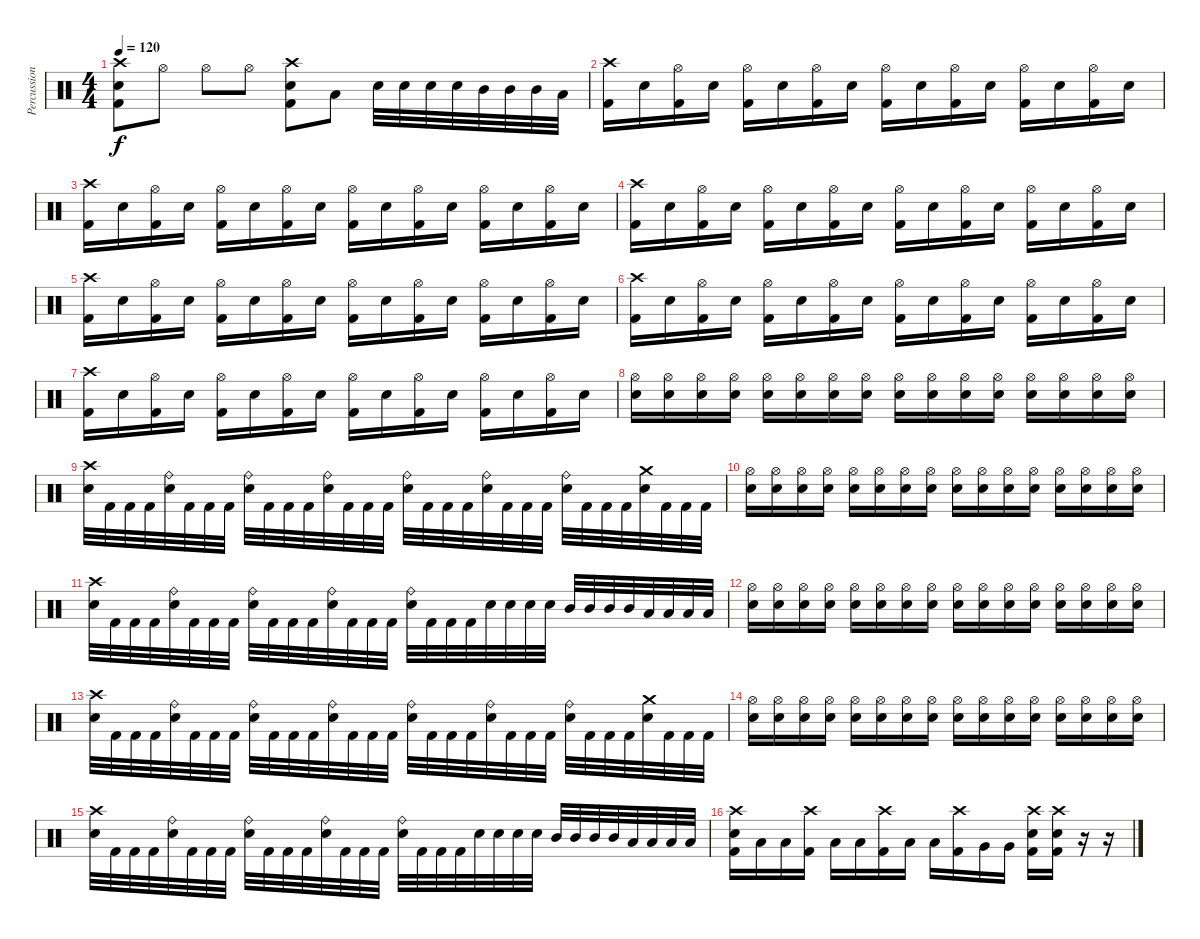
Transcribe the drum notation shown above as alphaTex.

\track ("Percussion" "Percussion") {instrument percussion}
\staff {score}
\articulation defaults
\ts (4 4)
\tempo 120
\clef neutral
\ks c
("Crash high (hit)" "Electric Snare (hit)" "Kick (hit) 2").8{dy f} "Hi-Hat (open)".8 "Hi-Hat (open)".8 "Hi-Hat (open)".8 ("Crash high (hit)" "Electric Snare (hit)" "Kick (hit) 2").8 "Low Tom (hit)".8 "Electric Snare (hit)".32 "Electric Snare (hit)".32 "Electric Snare (hit)".32 "Electric Snare (hit)".32 "Mid Tom (hit)".32 "Mid Tom (hit)".32 "Mid Tom (hit)".32 "Low Tom (hit)".32 |
("Crash high (hit)" "Kick (hit) 2").16 "Electric Snare (hit)".16 ("Hi-Hat (open)" "Kick (hit) 2").16 "Electric Snare (hit)".16 ("Hi-Hat (open)" "Kick (hit) 2").16 "Electric Snare (hit)".16 ("Hi-Hat (open)" "Kick (hit) 2").16 "Electric Snare (hit)".16 ("Hi-Hat (open)" "Kick (hit) 2").16 "Electric Snare (hit)".16 ("Hi-Hat (open)" "Kick (hit) 2").16 "Electric Snare (hit)".16 ("Hi-Hat (open)" "Kick (hit) 2").16 "Electric Snare (hit)".16 ("Hi-Hat (open)" "Kick (hit) 2").16 "Electric Snare (hit)".16 |
("Crash high (hit)" "Kick (hit) 2").16 "Electric Snare (hit)".16 ("Hi-Hat (open)" "Kick (hit) 2").16 "Electric Snare (hit)".16 ("Hi-Hat (open)" "Kick (hit) 2").16 "Electric Snare (hit)".16 ("Hi-Hat (open)" "Kick (hit) 2").16 "Electric Snare (hit)".16 ("Hi-Hat (open)" "Kick (hit) 2").16 "Electric Snare (hit)".16 ("Hi-Hat (open)" "Kick (hit) 2").16 "Electric Snare (hit)".16 ("Hi-Hat (open)" "Kick (hit) 2").16 "Electric Snare (hit)".16 ("Hi-Hat (open)" "Kick (hit) 2").16 "Electric Snare (hit)".16 |
("Crash high (hit)" "Kick (hit) 2").16 "Electric Snare (hit)".16 ("Hi-Hat (open)" "Kick (hit) 2").16 "Electric Snare (hit)".16 ("Hi-Hat (open)" "Kick (hit) 2").16 "Electric Snare (hit)".16 ("Hi-Hat (open)" "Kick (hit) 2").16 "Electric Snare (hit)".16 ("Hi-Hat (open)" "Kick (hit) 2").16 "Electric Snare (hit)".16 ("Hi-Hat (open)" "Kick (hit) 2").16 "Electric Snare (hit)".16 ("Hi-Hat (open)" "Kick (hit) 2").16 "Electric Snare (hit)".16 ("Hi-Hat (open)" "Kick (hit) 2").16 "Electric Snare (hit)".16 |
("Crash high (hit)" "Kick (hit) 2").16 "Electric Snare (hit)".16 ("Hi-Hat (open)" "Kick (hit) 2").16 "Electric Snare (hit)".16 ("Hi-Hat (open)" "Kick (hit) 2").16 "Electric Snare (hit)".16 ("Hi-Hat (open)" "Kick (hit) 2").16 "Electric Snare (hit)".16 ("Hi-Hat (open)" "Kick (hit) 2").16 "Electric Snare (hit)".16 ("Hi-Hat (open)" "Kick (hit) 2").16 "Electric Snare (hit)".16 ("Hi-Hat (open)" "Kick (hit) 2").16 "Electric Snare (hit)".16 ("Hi-Hat (open)" "Kick (hit) 2").16 "Electric Snare (hit)".16 |
("Crash high (hit)" "Kick (hit) 2").16 "Electric Snare (hit)".16 ("Hi-Hat (open)" "Kick (hit) 2").16 "Electric Snare (hit)".16 ("Hi-Hat (open)" "Kick (hit) 2").16 "Electric Snare (hit)".16 ("Hi-Hat (open)" "Kick (hit) 2").16 "Electric Snare (hit)".16 ("Hi-Hat (open)" "Kick (hit) 2").16 "Electric Snare (hit)".16 ("Hi-Hat (open)" "Kick (hit) 2").16 "Electric Snare (hit)".16 ("Hi-Hat (open)" "Kick (hit) 2").16 "Electric Snare (hit)".16 ("Hi-Hat (open)" "Kick (hit) 2").16 "Electric Snare (hit)".16 |
("Crash high (hit)" "Kick (hit) 2").16 "Electric Snare (hit)".16 ("Hi-Hat (open)" "Kick (hit) 2").16 "Electric Snare (hit)".16 ("Hi-Hat (open)" "Kick (hit) 2").16 "Electric Snare (hit)".16 ("Hi-Hat (open)" "Kick (hit) 2").16 "Electric Snare (hit)".16 ("Hi-Hat (open)" "Kick (hit) 2").16 "Electric Snare (hit)".16 ("Hi-Hat (open)" "Kick (hit) 2").16 "Electric Snare (hit)".16 ("Hi-Hat (open)" "Kick (hit) 2").16 "Electric Snare (hit)".16 ("Hi-Hat (open)" "Kick (hit) 2").16 "Electric Snare (hit)".16 |
("Hi-Hat (open)" "Electric Snare (hit)").16 ("Hi-Hat (open)" "Electric Snare (hit)").16 ("Hi-Hat (open)" "Electric Snare (hit)").16 ("Hi-Hat (open)" "Electric Snare (hit)").16 ("Hi-Hat (open)" "Electric Snare (hit)").16 ("Hi-Hat (open)" "Electric Snare (hit)").16 ("Hi-Hat (open)" "Electric Snare (hit)").16 ("Hi-Hat (open)" "Electric Snare (hit)").16 ("Hi-Hat (open)" "Electric Snare (hit)").16 ("Hi-Hat (open)" "Electric Snare (hit)").16 ("Hi-Hat (open)" "Electric Snare (hit)").16 ("Hi-Hat (open)" "Electric Snare (hit)").16 ("Hi-Hat (open)" "Electric Snare (hit)").16 ("Hi-Hat (open)" "Electric Snare (hit)").16 ("Hi-Hat (open)" "Electric Snare (hit)").16 ("Hi-Hat (open)" "Electric Snare (hit)").16 |
("Crash high (hit)" "Electric Snare (hit)").32 "Kick (hit) 2".32 "Kick (hit) 2".32 "Kick (hit) 2".32 ("Ride (bell)" "Electric Snare (hit)").32 "Kick (hit) 2".32 "Kick (hit) 2".32 "Kick (hit) 2".32 ("Ride (bell)" "Electric Snare (hit)").32 "Kick (hit) 2".32 "Kick (hit) 2".32 "Kick (hit) 2".32 ("Ride (bell)" "Electric Snare (hit)").32 "Kick (hit) 2".32 "Kick (hit) 2".32 "Kick (hit) 2".32 ("Ride (bell)" "Electric Snare (hit)").32 "Kick (hit) 2".32 "Kick (hit) 2".32 "Kick (hit) 2".32 ("Ride (bell)" "Electric Snare (hit)").32 "Kick (hit) 2".32 "Kick (hit) 2".32 "Kick (hit) 2".32 ("Ride (bell)" "Electric Snare (hit)").32 "Kick (hit) 2".32 "Kick (hit) 2".32 "Kick (hit) 2".32 ("Crash medium (hit)" "Electric Snare (hit)").32 "Kick (hit) 2".32 "Kick (hit) 2".32 "Kick (hit) 2".32 |
("Hi-Hat (open)" "Electric Snare (hit)").16 ("Hi-Hat (open)" "Electric Snare (hit)").16 ("Hi-Hat (open)" "Electric Snare (hit)").16 ("Hi-Hat (open)" "Electric Snare (hit)").16 ("Hi-Hat (open)" "Electric Snare (hit)").16 ("Hi-Hat (open)" "Electric Snare (hit)").16 ("Hi-Hat (open)" "Electric Snare (hit)").16 ("Hi-Hat (open)" "Electric Snare (hit)").16 ("Hi-Hat (open)" "Electric Snare (hit)").16 ("Hi-Hat (open)" "Electric Snare (hit)").16 ("Hi-Hat (open)" "Electric Snare (hit)").16 ("Hi-Hat (open)" "Electric Snare (hit)").16 ("Hi-Hat (open)" "Electric Snare (hit)").16 ("Hi-Hat (open)" "Electric Snare (hit)").16 ("Hi-Hat (open)" "Electric Snare (hit)").16 ("Hi-Hat (open)" "Electric Snare (hit)").16 |
("Crash high (hit)" "Electric Snare (hit)").32 "Kick (hit) 2".32 "Kick (hit) 2".32 "Kick (hit) 2".32 ("Ride (bell)" "Electric Snare (hit)").32 "Kick (hit) 2".32 "Kick (hit) 2".32 "Kick (hit) 2".32 ("Ride (bell)" "Electric Snare (hit)").32 "Kick (hit) 2".32 "Kick (hit) 2".32 "Kick (hit) 2".32 ("Ride (bell)" "Electric Snare (hit)").32 "Kick (hit) 2".32 "Kick (hit) 2".32 "Kick (hit) 2".32 ("Ride (bell)" "Electric Snare (hit)").32 "Kick (hit) 2".32 "Kick (hit) 2".32 "Kick (hit) 2".32 "Electric Snare (hit)".32 "Electric Snare (hit)".32 "Electric Snare (hit)".32 "Electric Snare (hit)".32 "Mid Tom (hit)".32 "Mid Tom (hit)".32 "Mid Tom (hit)".32 "Mid Tom (hit)".32 "Low Tom (hit)".32 "Low Tom (hit)".32 "Low Tom (hit)".32 "Low Tom (hit)".32 |
("Hi-Hat (open)" "Electric Snare (hit)").16 ("Hi-Hat (open)" "Electric Snare (hit)").16 ("Hi-Hat (open)" "Electric Snare (hit)").16 ("Hi-Hat (open)" "Electric Snare (hit)").16 ("Hi-Hat (open)" "Electric Snare (hit)").16 ("Hi-Hat (open)" "Electric Snare (hit)").16 ("Hi-Hat (open)" "Electric Snare (hit)").16 ("Hi-Hat (open)" "Electric Snare (hit)").16 ("Hi-Hat (open)" "Electric Snare (hit)").16 ("Hi-Hat (open)" "Electric Snare (hit)").16 ("Hi-Hat (open)" "Electric Snare (hit)").16 ("Hi-Hat (open)" "Electric Snare (hit)").16 ("Hi-Hat (open)" "Electric Snare (hit)").16 ("Hi-Hat (open)" "Electric Snare (hit)").16 ("Hi-Hat (open)" "Electric Snare (hit)").16 ("Hi-Hat (open)" "Electric Snare (hit)").16 |
("Crash high (hit)" "Electric Snare (hit)").32 "Kick (hit) 2".32 "Kick (hit) 2".32 "Kick (hit) 2".32 ("Ride (bell)" "Electric Snare (hit)").32 "Kick (hit) 2".32 "Kick (hit) 2".32 "Kick (hit) 2".32 ("Ride (bell)" "Electric Snare (hit)").32 "Kick (hit) 2".32 "Kick (hit) 2".32 "Kick (hit) 2".32 ("Ride (bell)" "Electric Snare (hit)").32 "Kick (hit) 2".32 "Kick (hit) 2".32 "Kick (hit) 2".32 ("Ride (bell)" "Electric Snare (hit)").32 "Kick (hit) 2".32 "Kick (hit) 2".32 "Kick (hit) 2".32 ("Ride (bell)" "Electric Snare (hit)").32 "Kick (hit) 2".32 "Kick (hit) 2".32 "Kick (hit) 2".32 ("Ride (bell)" "Electric Snare (hit)").32 "Kick (hit) 2".32 "Kick (hit) 2".32 "Kick (hit) 2".32 ("Crash medium (hit)" "Electric Snare (hit)").32 "Kick (hit) 2".32 "Kick (hit) 2".32 "Kick (hit) 2".32 |
("Hi-Hat (open)" "Electric Snare (hit)").16 ("Hi-Hat (open)" "Electric Snare (hit)").16 ("Hi-Hat (open)" "Electric Snare (hit)").16 ("Hi-Hat (open)" "Electric Snare (hit)").16 ("Hi-Hat (open)" "Electric Snare (hit)").16 ("Hi-Hat (open)" "Electric Snare (hit)").16 ("Hi-Hat (open)" "Electric Snare (hit)").16 ("Hi-Hat (open)" "Electric Snare (hit)").16 ("Hi-Hat (open)" "Electric Snare (hit)").16 ("Hi-Hat (open)" "Electric Snare (hit)").16 ("Hi-Hat (open)" "Electric Snare (hit)").16 ("Hi-Hat (open)" "Electric Snare (hit)").16 ("Hi-Hat (open)" "Electric Snare (hit)").16 ("Hi-Hat (open)" "Electric Snare (hit)").16 ("Hi-Hat (open)" "Electric Snare (hit)").16 ("Hi-Hat (open)" "Electric Snare (hit)").16 |
("Crash high (hit)" "Electric Snare (hit)").32 "Kick (hit) 2".32 "Kick (hit) 2".32 "Kick (hit) 2".32 ("Ride (bell)" "Electric Snare (hit)").32 "Kick (hit) 2".32 "Kick (hit) 2".32 "Kick (hit) 2".32 ("Ride (bell)" "Electric Snare (hit)").32 "Kick (hit) 2".32 "Kick (hit) 2".32 "Kick (hit) 2".32 ("Ride (bell)" "Electric Snare (hit)").32 "Kick (hit) 2".32 "Kick (hit) 2".32 "Kick (hit) 2".32 ("Ride (bell)" "Electric Snare (hit)").32 "Kick (hit) 2".32 "Kick (hit) 2".32 "Kick (hit) 2".32 "Electric Snare (hit)".32 "Electric Snare (hit)".32 "Electric Snare (hit)".32 "Electric Snare (hit)".32 "Mid Tom (hit)".32 "Mid Tom (hit)".32 "Mid Tom (hit)".32 "Mid Tom (hit)".32 "Low Tom (hit)".32 "Low Tom (hit)".32 "Low Tom (hit)".32 "Low Tom (hit)".32 |
("Crash high (hit)" "Electric Snare (hit)" "Kick (hit) 2").16 "Low Tom (hit)".16 "Low Tom (hit)".16 ("Crash high (hit)" "Kick (hit) 2").16 "Low Tom (hit)".16 "Low Tom (hit)".16 ("Crash high (hit)" "Kick (hit) 2").16 "Low Tom (hit)".16 "Low Tom (hit)".16 ("Crash high (hit)" "Kick (hit) 2").16 "Very Low Tom (hit)".16 "Very Low Tom (hit)".16 ("Crash high (hit)" "Electric Snare (hit)" "Kick (hit) 2").16 ("Crash high (hit)" "Electric Snare (hit)" "Kick (hit) 2").16 r.16 r.16
